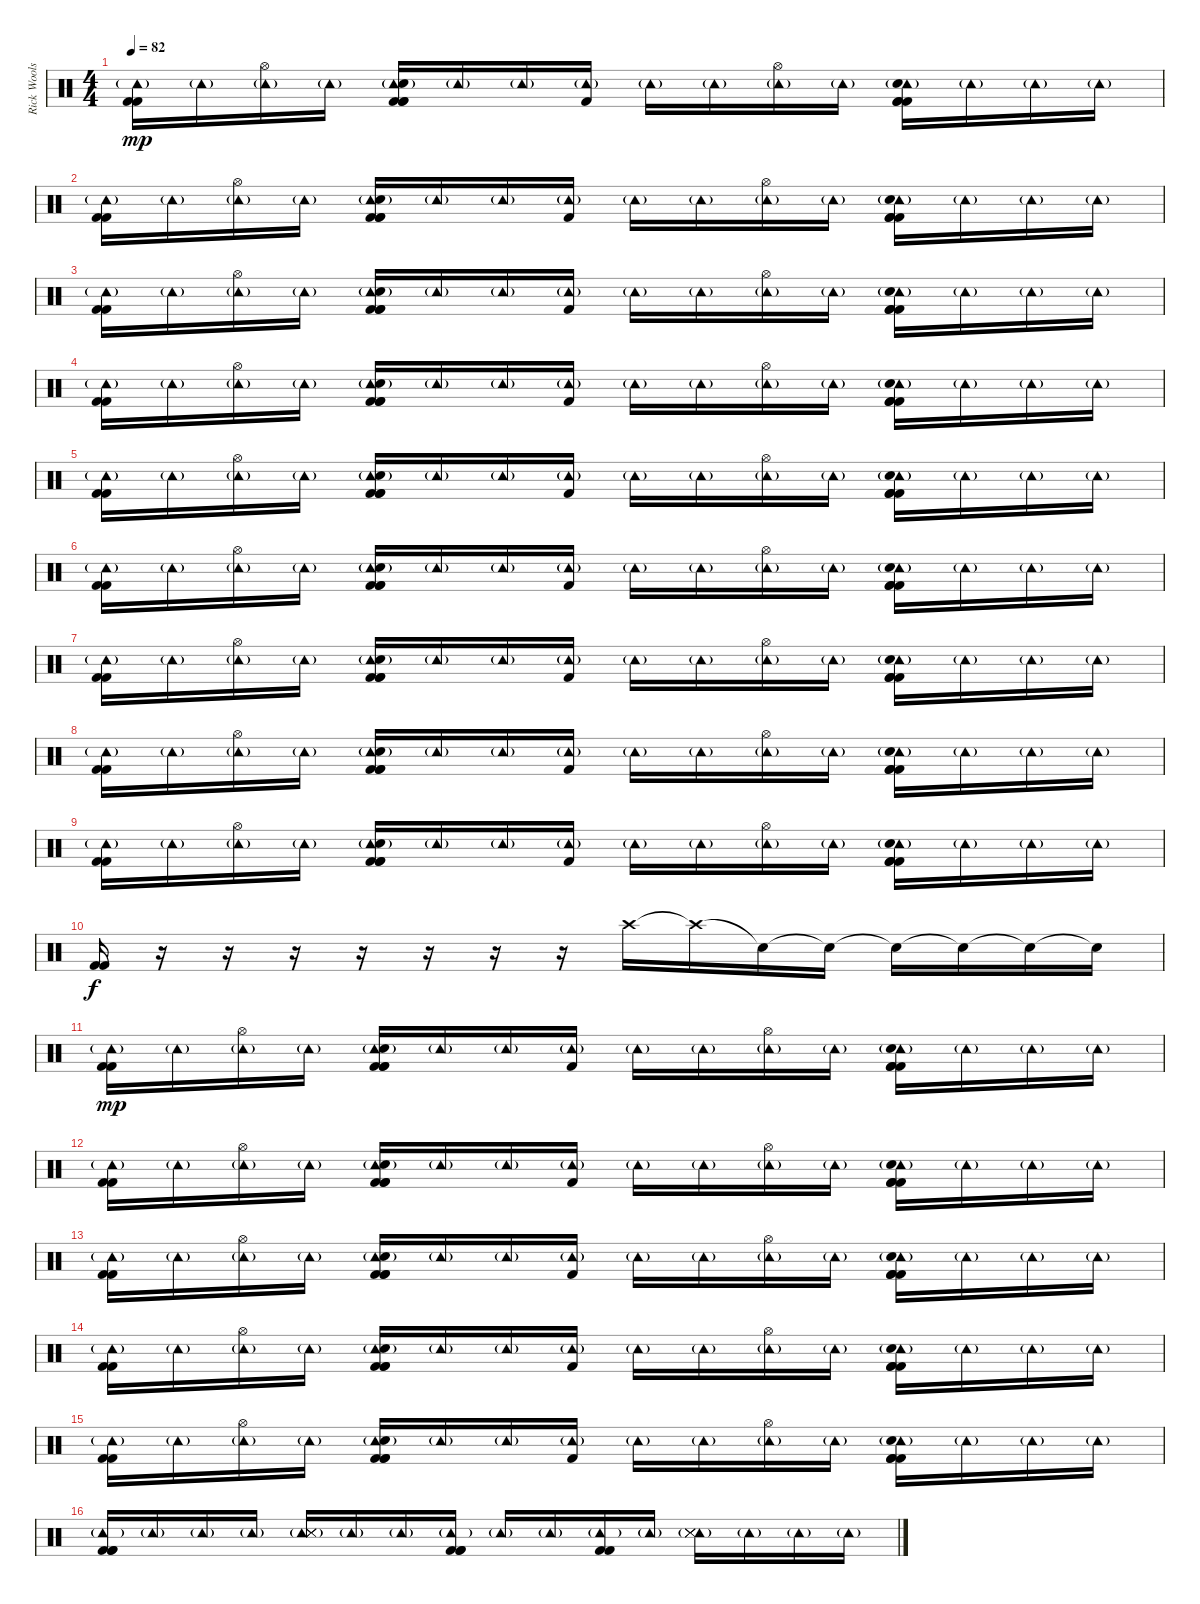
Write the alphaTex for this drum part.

\track ("Rick Woolstenhulme [Drums]" "Rick Wools") {instrument percussion}
\staff {score}
\articulation defaults
\ts (4 4)
\tempo 82
\clef neutral
\ks c
("Tambourine (hit)"{g} "Kick (hit) 2" "Kick (hit) 2").16{dy mp} "Tambourine (hit)"{g}.16 ("Tambourine (hit)"{g} "Hi-Hat (open)").16 "Tambourine (hit)"{g}.16 ("Tambourine (hit)"{g} "Kick (hit) 2" "Kick (hit) 2" "Kick (hit) 2" "Snare (hit) 2").16 "Tambourine (hit)"{g}.16 "Tambourine (hit)"{g}.16 ("Tambourine (hit)"{g} "Kick (hit) 2").16 "Tambourine (hit)"{g}.16 "Tambourine (hit)"{g}.16 ("Tambourine (hit)"{g} "Hi-Hat (open)").16 "Tambourine (hit)"{g}.16 ("Tambourine (hit)"{g} "Kick (hit) 2" "Kick (hit) 2" "Kick (hit) 2" "Snare (hit) 2").16 "Tambourine (hit)"{g}.16 "Tambourine (hit)"{g}.16 "Tambourine (hit)"{g}.16 |
("Tambourine (hit)"{g} "Kick (hit) 2" "Kick (hit) 2").16 "Tambourine (hit)"{g}.16 ("Tambourine (hit)"{g} "Hi-Hat (open)").16 "Tambourine (hit)"{g}.16 ("Tambourine (hit)"{g} "Kick (hit) 2" "Kick (hit) 2" "Kick (hit) 2" "Snare (hit) 2").16 "Tambourine (hit)"{g}.16 "Tambourine (hit)"{g}.16 ("Tambourine (hit)"{g} "Kick (hit) 2").16 "Tambourine (hit)"{g}.16 "Tambourine (hit)"{g}.16 ("Tambourine (hit)"{g} "Hi-Hat (open)").16 "Tambourine (hit)"{g}.16 ("Tambourine (hit)"{g} "Kick (hit) 2" "Kick (hit) 2" "Kick (hit) 2" "Snare (hit) 2").16 "Tambourine (hit)"{g}.16 "Tambourine (hit)"{g}.16 "Tambourine (hit)"{g}.16 |
("Tambourine (hit)"{g} "Kick (hit) 2" "Kick (hit) 2").16{volume 14} "Tambourine (hit)"{g}.16 ("Tambourine (hit)"{g} "Hi-Hat (open)").16 "Tambourine (hit)"{g}.16 ("Tambourine (hit)"{g} "Kick (hit) 2" "Kick (hit) 2" "Kick (hit) 2" "Snare (hit) 2").16 "Tambourine (hit)"{g}.16 "Tambourine (hit)"{g}.16 ("Tambourine (hit)"{g} "Kick (hit) 2").16 "Tambourine (hit)"{g}.16 "Tambourine (hit)"{g}.16 ("Tambourine (hit)"{g} "Hi-Hat (open)").16 "Tambourine (hit)"{g}.16 ("Tambourine (hit)"{g} "Kick (hit) 2" "Kick (hit) 2" "Kick (hit) 2" "Snare (hit) 2").16 "Tambourine (hit)"{g}.16 "Tambourine (hit)"{g}.16 "Tambourine (hit)"{g}.16 |
("Tambourine (hit)"{g} "Kick (hit) 2" "Kick (hit) 2").16 "Tambourine (hit)"{g}.16 ("Tambourine (hit)"{g} "Hi-Hat (open)").16 "Tambourine (hit)"{g}.16 ("Tambourine (hit)"{g} "Kick (hit) 2" "Kick (hit) 2" "Kick (hit) 2" "Snare (hit) 2").16 "Tambourine (hit)"{g}.16 "Tambourine (hit)"{g}.16 ("Tambourine (hit)"{g} "Kick (hit) 2").16 "Tambourine (hit)"{g}.16 "Tambourine (hit)"{g}.16 ("Tambourine (hit)"{g} "Hi-Hat (open)").16 "Tambourine (hit)"{g}.16 ("Tambourine (hit)"{g} "Kick (hit) 2" "Kick (hit) 2" "Kick (hit) 2" "Snare (hit) 2").16 "Tambourine (hit)"{g}.16 "Tambourine (hit)"{g}.16 "Tambourine (hit)"{g}.16 |
("Tambourine (hit)"{g} "Kick (hit) 2" "Kick (hit) 2").16 "Tambourine (hit)"{g}.16 ("Tambourine (hit)"{g} "Hi-Hat (open)").16 "Tambourine (hit)"{g}.16 ("Tambourine (hit)"{g} "Kick (hit) 2" "Kick (hit) 2" "Kick (hit) 2" "Snare (hit) 2").16 "Tambourine (hit)"{g}.16 "Tambourine (hit)"{g}.16 ("Tambourine (hit)"{g} "Kick (hit) 2").16 "Tambourine (hit)"{g}.16 "Tambourine (hit)"{g}.16 ("Tambourine (hit)"{g} "Hi-Hat (open)").16 "Tambourine (hit)"{g}.16 ("Tambourine (hit)"{g} "Kick (hit) 2" "Kick (hit) 2" "Kick (hit) 2" "Snare (hit) 2").16 "Tambourine (hit)"{g}.16 "Tambourine (hit)"{g}.16 "Tambourine (hit)"{g}.16 |
("Tambourine (hit)"{g} "Kick (hit) 2" "Kick (hit) 2").16 "Tambourine (hit)"{g}.16 ("Tambourine (hit)"{g} "Hi-Hat (open)").16 "Tambourine (hit)"{g}.16 ("Tambourine (hit)"{g} "Kick (hit) 2" "Kick (hit) 2" "Kick (hit) 2" "Snare (hit) 2").16 "Tambourine (hit)"{g}.16 "Tambourine (hit)"{g}.16 ("Tambourine (hit)"{g} "Kick (hit) 2").16 "Tambourine (hit)"{g}.16 "Tambourine (hit)"{g}.16 ("Tambourine (hit)"{g} "Hi-Hat (open)").16 "Tambourine (hit)"{g}.16 ("Tambourine (hit)"{g} "Kick (hit) 2" "Kick (hit) 2" "Kick (hit) 2" "Snare (hit) 2").16 "Tambourine (hit)"{g}.16 "Tambourine (hit)"{g}.16 "Tambourine (hit)"{g}.16 |
("Tambourine (hit)"{g} "Kick (hit) 2" "Kick (hit) 2").16{volume 14} "Tambourine (hit)"{g}.16 ("Tambourine (hit)"{g} "Hi-Hat (open)").16 "Tambourine (hit)"{g}.16 ("Tambourine (hit)"{g} "Kick (hit) 2" "Kick (hit) 2" "Kick (hit) 2" "Snare (hit) 2").16 "Tambourine (hit)"{g}.16 "Tambourine (hit)"{g}.16 ("Tambourine (hit)"{g} "Kick (hit) 2").16 "Tambourine (hit)"{g}.16 "Tambourine (hit)"{g}.16 ("Tambourine (hit)"{g} "Hi-Hat (open)").16 "Tambourine (hit)"{g}.16 ("Tambourine (hit)"{g} "Kick (hit) 2" "Kick (hit) 2" "Kick (hit) 2" "Snare (hit) 2").16 "Tambourine (hit)"{g}.16 "Tambourine (hit)"{g}.16 "Tambourine (hit)"{g}.16 |
("Tambourine (hit)"{g} "Kick (hit) 2" "Kick (hit) 2").16 "Tambourine (hit)"{g}.16 ("Tambourine (hit)"{g} "Hi-Hat (open)").16 "Tambourine (hit)"{g}.16 ("Tambourine (hit)"{g} "Kick (hit) 2" "Kick (hit) 2" "Kick (hit) 2" "Snare (hit) 2").16 "Tambourine (hit)"{g}.16 "Tambourine (hit)"{g}.16 ("Tambourine (hit)"{g} "Kick (hit) 2").16 "Tambourine (hit)"{g}.16 "Tambourine (hit)"{g}.16 ("Tambourine (hit)"{g} "Hi-Hat (open)").16 "Tambourine (hit)"{g}.16 ("Tambourine (hit)"{g} "Kick (hit) 2" "Kick (hit) 2" "Kick (hit) 2" "Snare (hit) 2").16 "Tambourine (hit)"{g}.16 "Tambourine (hit)"{g}.16 "Tambourine (hit)"{g}.16 |
("Tambourine (hit)"{g} "Kick (hit) 2" "Kick (hit) 2").16 "Tambourine (hit)"{g}.16 ("Tambourine (hit)"{g} "Hi-Hat (open)").16 "Tambourine (hit)"{g}.16 ("Tambourine (hit)"{g} "Kick (hit) 2" "Kick (hit) 2" "Kick (hit) 2" "Snare (hit) 2").16 "Tambourine (hit)"{g}.16 "Tambourine (hit)"{g}.16 ("Tambourine (hit)"{g} "Kick (hit) 2").16 "Tambourine (hit)"{g}.16 "Tambourine (hit)"{g}.16 ("Tambourine (hit)"{g} "Hi-Hat (open)").16 "Tambourine (hit)"{g}.16 ("Tambourine (hit)"{g} "Kick (hit) 2" "Kick (hit) 2" "Kick (hit) 2" "Snare (hit) 2").16 "Tambourine (hit)"{g}.16 "Tambourine (hit)"{g}.16 "Tambourine (hit)"{g}.16 |
("Kick (hit) 2" "Kick (hit) 2").16{dy f} r.16 r.16 r.16 r.16 r.16 r.16 r.16 "Crash high (hit)".16{volume 2} "Crash high (hit)"{t}.16{volume 4} "Snare (hit)"{t}.16{volume 5} "Snare (hit)"{t}.16{volume 6} "Snare (hit)"{t}.16{volume 7} "Snare (hit)"{t}.16{volume 6} "Snare (hit)"{t}.16{volume 5} "Snare (hit)"{t}.16{volume 4} |
("Tambourine (hit)"{g} "Kick (hit) 2" "Kick (hit) 2").16{dy mp volume 14} "Tambourine (hit)"{g}.16 ("Tambourine (hit)"{g} "Hi-Hat (open)").16 "Tambourine (hit)"{g}.16 ("Tambourine (hit)"{g} "Kick (hit) 2" "Kick (hit) 2" "Kick (hit) 2" "Snare (hit) 2").16 "Tambourine (hit)"{g}.16 "Tambourine (hit)"{g}.16 ("Tambourine (hit)"{g} "Kick (hit) 2").16 "Tambourine (hit)"{g}.16 "Tambourine (hit)"{g}.16 ("Tambourine (hit)"{g} "Hi-Hat (open)").16 "Tambourine (hit)"{g}.16 ("Tambourine (hit)"{g} "Kick (hit) 2" "Kick (hit) 2" "Kick (hit) 2" "Snare (hit) 2").16 "Tambourine (hit)"{g}.16 "Tambourine (hit)"{g}.16 "Tambourine (hit)"{g}.16 |
("Tambourine (hit)"{g} "Kick (hit) 2" "Kick (hit) 2").16 "Tambourine (hit)"{g}.16 ("Tambourine (hit)"{g} "Hi-Hat (open)").16 "Tambourine (hit)"{g}.16 ("Tambourine (hit)"{g} "Kick (hit) 2" "Kick (hit) 2" "Kick (hit) 2" "Snare (hit) 2").16 "Tambourine (hit)"{g}.16 "Tambourine (hit)"{g}.16 ("Tambourine (hit)"{g} "Kick (hit) 2").16 "Tambourine (hit)"{g}.16 "Tambourine (hit)"{g}.16 ("Tambourine (hit)"{g} "Hi-Hat (open)").16 "Tambourine (hit)"{g}.16 ("Tambourine (hit)"{g} "Kick (hit) 2" "Kick (hit) 2" "Kick (hit) 2" "Snare (hit) 2").16 "Tambourine (hit)"{g}.16 "Tambourine (hit)"{g}.16 "Tambourine (hit)"{g}.16 |
("Tambourine (hit)"{g} "Kick (hit) 2" "Kick (hit) 2").16 "Tambourine (hit)"{g}.16 ("Tambourine (hit)"{g} "Hi-Hat (open)").16 "Tambourine (hit)"{g}.16 ("Tambourine (hit)"{g} "Kick (hit) 2" "Kick (hit) 2" "Kick (hit) 2" "Snare (hit) 2").16 "Tambourine (hit)"{g}.16 "Tambourine (hit)"{g}.16 ("Tambourine (hit)"{g} "Kick (hit) 2").16 "Tambourine (hit)"{g}.16 "Tambourine (hit)"{g}.16 ("Tambourine (hit)"{g} "Hi-Hat (open)").16 "Tambourine (hit)"{g}.16 ("Tambourine (hit)"{g} "Kick (hit) 2" "Kick (hit) 2" "Kick (hit) 2" "Snare (hit) 2").16 "Tambourine (hit)"{g}.16 "Tambourine (hit)"{g}.16 "Tambourine (hit)"{g}.16 |
("Tambourine (hit)"{g} "Kick (hit) 2" "Kick (hit) 2").16 "Tambourine (hit)"{g}.16 ("Tambourine (hit)"{g} "Hi-Hat (open)").16 "Tambourine (hit)"{g}.16 ("Tambourine (hit)"{g} "Kick (hit) 2" "Kick (hit) 2" "Kick (hit) 2" "Snare (hit) 2").16 "Tambourine (hit)"{g}.16 "Tambourine (hit)"{g}.16 ("Tambourine (hit)"{g} "Kick (hit) 2").16 "Tambourine (hit)"{g}.16 "Tambourine (hit)"{g}.16 ("Tambourine (hit)"{g} "Hi-Hat (open)").16 "Tambourine (hit)"{g}.16 ("Tambourine (hit)"{g} "Kick (hit) 2" "Kick (hit) 2" "Kick (hit) 2" "Snare (hit) 2").16 "Tambourine (hit)"{g}.16 "Tambourine (hit)"{g}.16 "Tambourine (hit)"{g}.16 |
("Tambourine (hit)"{g} "Kick (hit) 2" "Kick (hit) 2").16 "Tambourine (hit)"{g}.16 ("Tambourine (hit)"{g} "Hi-Hat (open)").16 "Tambourine (hit)"{g}.16 ("Tambourine (hit)"{g} "Kick (hit) 2" "Kick (hit) 2" "Kick (hit) 2" "Snare (hit) 2").16 "Tambourine (hit)"{g}.16 "Tambourine (hit)"{g}.16 ("Tambourine (hit)"{g} "Kick (hit) 2").16 "Tambourine (hit)"{g}.16 "Tambourine (hit)"{g}.16 ("Tambourine (hit)"{g} "Hi-Hat (open)").16 "Tambourine (hit)"{g}.16 ("Tambourine (hit)"{g} "Kick (hit) 2" "Kick (hit) 2" "Kick (hit) 2" "Snare (hit) 2").16 "Tambourine (hit)"{g}.16 "Tambourine (hit)"{g}.16 "Tambourine (hit)"{g}.16 |
("Tambourine (hit)"{g} "Kick (hit) 2" "Kick (hit) 2" "Kick (hit) 2").16 "Tambourine (hit)"{g}.16 "Tambourine (hit)"{g}.16 "Tambourine (hit)"{g}.16 ("Tambourine (hit)"{g} "Snare (side stick) 3" "Snare (side stick) 3" "Snare (side stick) 3").16 "Tambourine (hit)"{g}.16 "Tambourine (hit)"{g}.16 ("Tambourine (hit)"{g} "Kick (hit) 2" "Kick (hit) 2" "Kick (hit) 2").16 "Tambourine (hit)"{g}.16 "Tambourine (hit)"{g}.16 ("Tambourine (hit)"{g} "Kick (hit) 2" "Kick (hit) 2").16 "Tambourine (hit)"{g}.16 ("Tambourine (hit)"{g} "Snare (side stick) 3" "Snare (side stick) 3" "Snare (side stick) 3").16 "Tambourine (hit)"{g}.16 "Tambourine (hit)"{g}.16 "Tambourine (hit)"{g}.16
